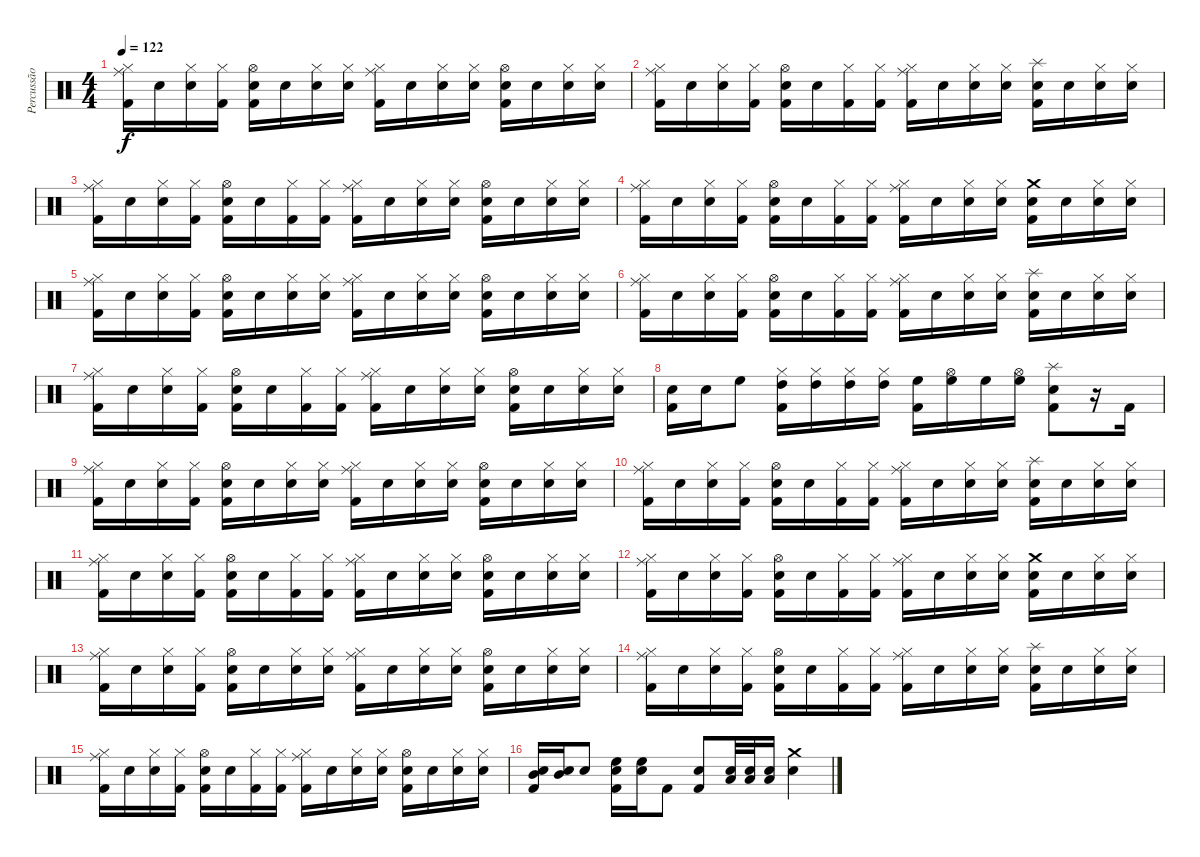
\track ("Percussão" "Percussão") {instrument percussion}
\staff {score}
\articulation defaults
\ts (4 4)
\tempo 122
\clef neutral
\ks c
("Kick (hit) 2" "Hi-Hat (closed)" "Ride (middle)").16{dy f} "Snare (hit)".16 ("Snare (hit)" "Hi-Hat (closed)").16 ("Kick (hit) 2" "Hi-Hat (closed)").16 ("Kick (hit) 2" "Electric Snare (hit)" "Hi-Hat (open)").16 "Snare (hit)".16 ("Snare (hit)" "Hi-Hat (closed)").16 ("Snare (hit)" "Hi-Hat (closed)").16 ("Kick (hit) 2" "Hi-Hat (closed)" "Ride (middle)").16 "Snare (hit)".16 ("Snare (hit)" "Hi-Hat (closed)").16 ("Snare (hit)" "Hi-Hat (closed)").16 ("Kick (hit) 2" "Electric Snare (hit)" "Hi-Hat (open)").16 "Snare (hit)".16 ("Snare (hit)" "Hi-Hat (closed)").16 ("Snare (hit)" "Hi-Hat (closed)").16 |
("Kick (hit) 2" "Hi-Hat (closed)" "Ride (middle)").16 "Snare (hit)".16 ("Snare (hit)" "Hi-Hat (closed)").16 ("Kick (hit) 2" "Hi-Hat (closed)").16 ("Kick (hit) 2" "Electric Snare (hit)" "Hi-Hat (open)").16 "Snare (hit)".16 ("Kick (hit) 2" "Hi-Hat (closed)").16 ("Kick (hit) 2" "Hi-Hat (closed)").16 ("Kick (hit) 2" "Hi-Hat (closed)" "Ride (middle)").16 "Snare (hit)".16 ("Snare (hit)" "Hi-Hat (closed)").16 ("Snare (hit)" "Hi-Hat (closed)").16 ("Kick (hit) 2" "Electric Snare (hit)" "Splash (hit)").16 "Snare (hit)".16 ("Snare (hit)" "Hi-Hat (closed)").16 ("Snare (hit)" "Hi-Hat (closed)").16 |
("Kick (hit) 2" "Hi-Hat (closed)" "Ride (middle)").16 "Snare (hit)".16 ("Snare (hit)" "Hi-Hat (closed)").16 ("Kick (hit) 2" "Hi-Hat (closed)").16 ("Kick (hit) 2" "Electric Snare (hit)" "Hi-Hat (open)").16 "Snare (hit)".16 ("Kick (hit) 2" "Hi-Hat (closed)").16 ("Kick (hit) 2" "Hi-Hat (closed)").16 ("Kick (hit) 2" "Hi-Hat (closed)" "Ride (middle)").16 "Snare (hit)".16 ("Snare (hit)" "Hi-Hat (closed)").16 ("Snare (hit)" "Hi-Hat (closed)").16 ("Kick (hit) 2" "Electric Snare (hit)" "Hi-Hat (open)").16 "Snare (hit)".16 ("Snare (hit)" "Hi-Hat (closed)").16 ("Snare (hit)" "Hi-Hat (closed)").16 |
("Kick (hit) 2" "Hi-Hat (closed)" "Ride (middle)").16 "Snare (hit)".16 ("Snare (hit)" "Hi-Hat (closed)").16 ("Kick (hit) 2" "Hi-Hat (closed)").16 ("Kick (hit) 2" "Electric Snare (hit)" "Hi-Hat (open)").16 "Snare (hit)".16 ("Kick (hit) 2" "Hi-Hat (closed)").16 ("Kick (hit) 2" "Hi-Hat (closed)").16 ("Kick (hit) 2" "Hi-Hat (closed)" "Ride (middle)").16 "Snare (hit)".16 ("Snare (hit)" "Hi-Hat (closed)").16 ("Snare (hit)" "Hi-Hat (closed)").16 ("Kick (hit) 2" "Electric Snare (hit)" "Crash medium (hit)").16 "Snare (hit)".16 ("Snare (hit)" "Hi-Hat (closed)").16 ("Snare (hit)" "Hi-Hat (closed)").16 |
("Kick (hit) 2" "Hi-Hat (closed)" "Ride (middle)").16 "Snare (hit)".16 ("Snare (hit)" "Hi-Hat (closed)").16 ("Kick (hit) 2" "Hi-Hat (closed)").16 ("Kick (hit) 2" "Electric Snare (hit)" "Hi-Hat (open)").16 "Snare (hit)".16 ("Snare (hit)" "Hi-Hat (closed)").16 ("Snare (hit)" "Hi-Hat (closed)").16 ("Kick (hit) 2" "Hi-Hat (closed)" "Ride (middle)").16 "Snare (hit)".16 ("Snare (hit)" "Hi-Hat (closed)").16 ("Snare (hit)" "Hi-Hat (closed)").16 ("Kick (hit) 2" "Electric Snare (hit)" "Hi-Hat (open)").16 "Snare (hit)".16 ("Snare (hit)" "Hi-Hat (closed)").16 ("Snare (hit)" "Hi-Hat (closed)").16 |
("Kick (hit) 2" "Hi-Hat (closed)" "Ride (middle)").16 "Snare (hit)".16 ("Snare (hit)" "Hi-Hat (closed)").16 ("Kick (hit) 2" "Hi-Hat (closed)").16 ("Kick (hit) 2" "Electric Snare (hit)" "Hi-Hat (open)").16 "Snare (hit)".16 ("Kick (hit) 2" "Hi-Hat (closed)").16 ("Kick (hit) 2" "Hi-Hat (closed)").16 ("Kick (hit) 2" "Hi-Hat (closed)" "Ride (middle)").16 "Snare (hit)".16 ("Snare (hit)" "Hi-Hat (closed)").16 ("Snare (hit)" "Hi-Hat (closed)").16 ("Kick (hit) 2" "Electric Snare (hit)" "Splash (hit)").16 "Snare (hit)".16 ("Snare (hit)" "Hi-Hat (closed)").16 ("Snare (hit)" "Hi-Hat (closed)").16 |
("Kick (hit) 2" "Hi-Hat (closed)" "Ride (middle)").16 "Snare (hit)".16 ("Snare (hit)" "Hi-Hat (closed)").16 ("Kick (hit) 2" "Hi-Hat (closed)").16 ("Kick (hit) 2" "Electric Snare (hit)" "Hi-Hat (open)").16 "Snare (hit)".16 ("Kick (hit) 2" "Hi-Hat (closed)").16 ("Kick (hit) 2" "Hi-Hat (closed)").16 ("Kick (hit) 2" "Hi-Hat (closed)" "Ride (middle)").16 "Snare (hit)".16 ("Snare (hit)" "Hi-Hat (closed)").16 ("Snare (hit)" "Hi-Hat (closed)").16 ("Kick (hit) 2" "Electric Snare (hit)" "Hi-Hat (open)").16 "Snare (hit)".16 ("Snare (hit)" "Hi-Hat (closed)").16 ("Snare (hit)" "Hi-Hat (closed)").16 |
("Kick (hit) 2" "Electric Snare (hit)").16 "Electric Snare (hit)".16 "High Floor Tom (hit)".8 ("Kick (hit) 2" "Hi-Hat (closed)" "High Tom (hit)").16 ("Hi-Hat (closed)" "High Tom (hit)").16 ("Hi-Hat (closed)" "High Tom (hit)").16 ("Hi-Hat (closed)" "High Tom (hit)").16 ("Kick (hit) 2" "High Floor Tom (hit)").16 ("Hi-Hat (open)" "High Floor Tom (hit)").16 "High Floor Tom (hit)".16 ("Hi-Hat (open)" "High Floor Tom (hit)").16 ("Kick (hit) 2" "Electric Snare (hit)" "Splash (hit)").8 r.16 "Kick (hit) 2".16 |
("Kick (hit) 2" "Hi-Hat (closed)" "Ride (middle)").16 "Snare (hit)".16 ("Snare (hit)" "Hi-Hat (closed)").16 ("Kick (hit) 2" "Hi-Hat (closed)").16 ("Kick (hit) 2" "Electric Snare (hit)" "Hi-Hat (open)").16 "Snare (hit)".16 ("Snare (hit)" "Hi-Hat (closed)").16 ("Snare (hit)" "Hi-Hat (closed)").16 ("Kick (hit) 2" "Hi-Hat (closed)" "Ride (middle)").16 "Snare (hit)".16 ("Snare (hit)" "Hi-Hat (closed)").16 ("Snare (hit)" "Hi-Hat (closed)").16 ("Kick (hit) 2" "Electric Snare (hit)" "Hi-Hat (open)").16 "Snare (hit)".16 ("Snare (hit)" "Hi-Hat (closed)").16 ("Snare (hit)" "Hi-Hat (closed)").16 |
("Kick (hit) 2" "Hi-Hat (closed)" "Ride (middle)").16 "Snare (hit)".16 ("Snare (hit)" "Hi-Hat (closed)").16 ("Kick (hit) 2" "Hi-Hat (closed)").16 ("Kick (hit) 2" "Electric Snare (hit)" "Hi-Hat (open)").16 "Snare (hit)".16 ("Kick (hit) 2" "Hi-Hat (closed)").16 ("Kick (hit) 2" "Hi-Hat (closed)").16 ("Kick (hit) 2" "Hi-Hat (closed)" "Ride (middle)").16 "Snare (hit)".16 ("Snare (hit)" "Hi-Hat (closed)").16 ("Snare (hit)" "Hi-Hat (closed)").16 ("Kick (hit) 2" "Electric Snare (hit)" "Splash (hit)").16 "Snare (hit)".16 ("Snare (hit)" "Hi-Hat (closed)").16 ("Snare (hit)" "Hi-Hat (closed)").16 |
("Kick (hit) 2" "Hi-Hat (closed)" "Ride (middle)").16 "Snare (hit)".16 ("Snare (hit)" "Hi-Hat (closed)").16 ("Kick (hit) 2" "Hi-Hat (closed)").16 ("Kick (hit) 2" "Electric Snare (hit)" "Hi-Hat (open)").16 "Snare (hit)".16 ("Kick (hit) 2" "Hi-Hat (closed)").16 ("Kick (hit) 2" "Hi-Hat (closed)").16 ("Kick (hit) 2" "Hi-Hat (closed)" "Ride (middle)").16 "Snare (hit)".16 ("Snare (hit)" "Hi-Hat (closed)").16 ("Snare (hit)" "Hi-Hat (closed)").16 ("Kick (hit) 2" "Electric Snare (hit)" "Hi-Hat (open)").16 "Snare (hit)".16 ("Snare (hit)" "Hi-Hat (closed)").16 ("Snare (hit)" "Hi-Hat (closed)").16 |
("Kick (hit) 2" "Hi-Hat (closed)" "Ride (middle)").16 "Snare (hit)".16 ("Snare (hit)" "Hi-Hat (closed)").16 ("Kick (hit) 2" "Hi-Hat (closed)").16 ("Kick (hit) 2" "Electric Snare (hit)" "Hi-Hat (open)").16 "Snare (hit)".16 ("Kick (hit) 2" "Hi-Hat (closed)").16 ("Kick (hit) 2" "Hi-Hat (closed)").16 ("Kick (hit) 2" "Hi-Hat (closed)" "Ride (middle)").16 "Snare (hit)".16 ("Snare (hit)" "Hi-Hat (closed)").16 ("Snare (hit)" "Hi-Hat (closed)").16 ("Kick (hit) 2" "Electric Snare (hit)" "Crash medium (hit)").16 "Snare (hit)".16 ("Snare (hit)" "Hi-Hat (closed)").16 ("Snare (hit)" "Hi-Hat (closed)").16 |
("Kick (hit) 2" "Hi-Hat (closed)" "Ride (middle)").16 "Snare (hit)".16 ("Snare (hit)" "Hi-Hat (closed)").16 ("Kick (hit) 2" "Hi-Hat (closed)").16 ("Kick (hit) 2" "Electric Snare (hit)" "Hi-Hat (open)").16 "Snare (hit)".16 ("Snare (hit)" "Hi-Hat (closed)").16 ("Snare (hit)" "Hi-Hat (closed)").16 ("Kick (hit) 2" "Hi-Hat (closed)" "Ride (middle)").16 "Snare (hit)".16 ("Snare (hit)" "Hi-Hat (closed)").16 ("Snare (hit)" "Hi-Hat (closed)").16 ("Kick (hit) 2" "Electric Snare (hit)" "Hi-Hat (open)").16 "Snare (hit)".16 ("Snare (hit)" "Hi-Hat (closed)").16 ("Snare (hit)" "Hi-Hat (closed)").16 |
("Kick (hit) 2" "Hi-Hat (closed)" "Ride (middle)").16 "Snare (hit)".16 ("Snare (hit)" "Hi-Hat (closed)").16 ("Kick (hit) 2" "Hi-Hat (closed)").16 ("Kick (hit) 2" "Electric Snare (hit)" "Hi-Hat (open)").16 "Snare (hit)".16 ("Kick (hit) 2" "Hi-Hat (closed)").16 ("Kick (hit) 2" "Hi-Hat (closed)").16 ("Kick (hit) 2" "Hi-Hat (closed)" "Ride (middle)").16 "Snare (hit)".16 ("Snare (hit)" "Hi-Hat (closed)").16 ("Snare (hit)" "Hi-Hat (closed)").16 ("Kick (hit) 2" "Electric Snare (hit)" "Splash (hit)").16 "Snare (hit)".16 ("Snare (hit)" "Hi-Hat (closed)").16 ("Snare (hit)" "Hi-Hat (closed)").16 |
("Kick (hit) 2" "Hi-Hat (closed)" "Ride (middle)").16 "Snare (hit)".16 ("Snare (hit)" "Hi-Hat (closed)").16 ("Kick (hit) 2" "Hi-Hat (closed)").16 ("Kick (hit) 2" "Electric Snare (hit)" "Hi-Hat (open)").16 "Snare (hit)".16 ("Kick (hit) 2" "Hi-Hat (closed)").16 ("Kick (hit) 2" "Hi-Hat (closed)").16 ("Kick (hit) 2" "Hi-Hat (closed)" "Ride (middle)").16 "Snare (hit)".16 ("Snare (hit)" "Hi-Hat (closed)").16 ("Snare (hit)" "Hi-Hat (closed)").16 ("Kick (hit) 2" "Electric Snare (hit)" "Hi-Hat (open)").16 "Snare (hit)".16 ("Snare (hit)" "Hi-Hat (closed)").16 ("Snare (hit)" "Hi-Hat (closed)").16 |
("Electric Snare (hit)" "Kick (hit) 2" "Mid Tom (hit)").16 ("Electric Snare (hit)" "Mid Tom (hit)").16 "Electric Snare (hit)".8 ("Electric Snare (hit)" "Kick (hit) 2" "High Floor Tom (hit)").16 ("Electric Snare (hit)" "High Floor Tom (hit)").16 "Kick (hit) 2".8 ("Electric Snare (hit)" "Kick (hit) 2").8 ("Electric Snare (hit)" "Low Floor Tom (hit)").32 ("Electric Snare (hit)" "Low Floor Tom (hit)").32 ("Electric Snare (hit)" "Low Floor Tom (hit)").16 ("Electric Snare (hit)" "Crash medium (hit)").4
